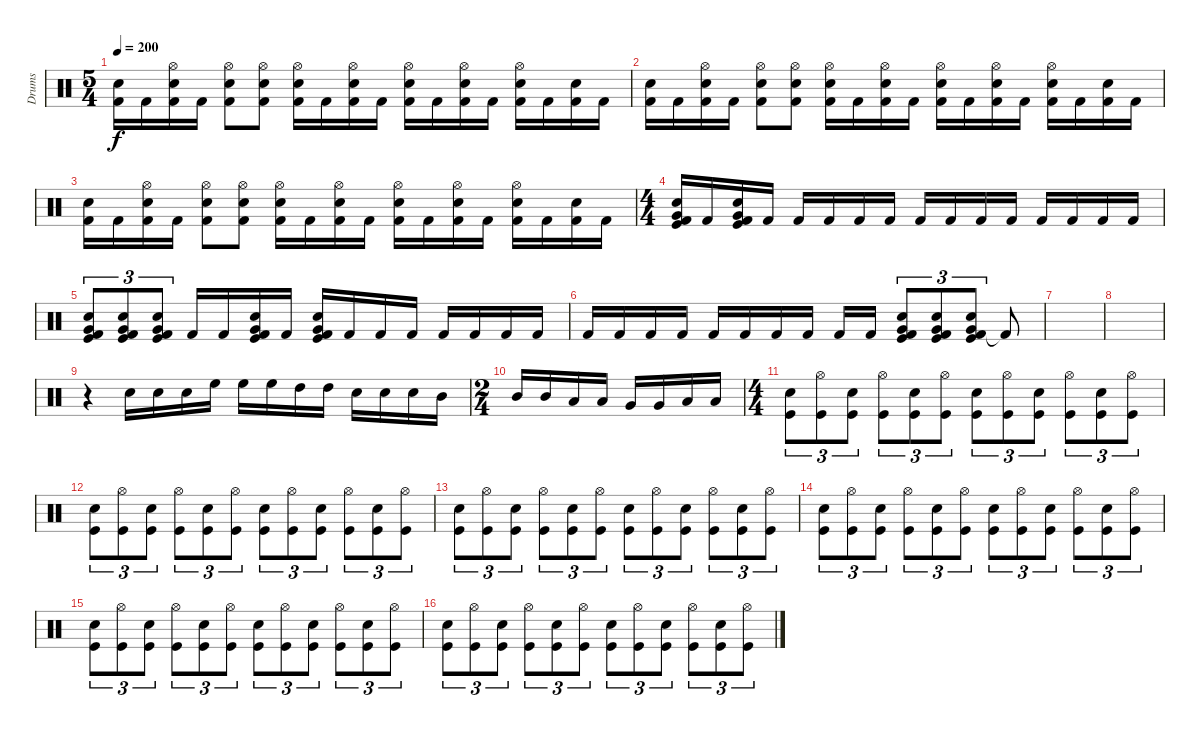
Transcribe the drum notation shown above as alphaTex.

\track ("Drums" "Drums") {instrument percussion}
\staff {score}
\articulation defaults
\ts (5 4)
\tempo 200
\clef neutral
\ks c
("Electric Snare (hit)" "Kick (hit) 2").16{dy f} "Kick (hit) 2".16 ("Hi-Hat (open)" "Electric Snare (hit)" "Kick (hit) 2").16 "Kick (hit) 2".16 ("Hi-Hat (open)" "Electric Snare (hit)" "Kick (hit) 2").8 ("Hi-Hat (open)" "Electric Snare (hit)" "Kick (hit) 2").8 ("Hi-Hat (open)" "Electric Snare (hit)" "Kick (hit) 2").16 "Kick (hit) 2".16 ("Hi-Hat (open)" "Electric Snare (hit)" "Kick (hit) 2").16 "Kick (hit) 2".16 ("Hi-Hat (open)" "Electric Snare (hit)" "Kick (hit) 2").16 "Kick (hit) 2".16 ("Hi-Hat (open)" "Electric Snare (hit)" "Kick (hit) 2").16 "Kick (hit) 2".16 ("Hi-Hat (open)" "Electric Snare (hit)" "Kick (hit) 2").16 "Kick (hit) 2".16 ("Electric Snare (hit)" "Kick (hit) 2").16 "Kick (hit) 2".16 |
("Electric Snare (hit)" "Kick (hit) 2").16 "Kick (hit) 2".16 ("Hi-Hat (open)" "Electric Snare (hit)" "Kick (hit) 2").16 "Kick (hit) 2".16 ("Hi-Hat (open)" "Electric Snare (hit)" "Kick (hit) 2").8 ("Hi-Hat (open)" "Electric Snare (hit)" "Kick (hit) 2").8 ("Hi-Hat (open)" "Electric Snare (hit)" "Kick (hit) 2").16 "Kick (hit) 2".16 ("Hi-Hat (open)" "Electric Snare (hit)" "Kick (hit) 2").16 "Kick (hit) 2".16 ("Hi-Hat (open)" "Electric Snare (hit)" "Kick (hit) 2").16 "Kick (hit) 2".16 ("Hi-Hat (open)" "Electric Snare (hit)" "Kick (hit) 2").16 "Kick (hit) 2".16 ("Hi-Hat (open)" "Electric Snare (hit)" "Kick (hit) 2").16 "Kick (hit) 2".16 ("Electric Snare (hit)" "Kick (hit) 2").16 "Kick (hit) 2".16 |
("Electric Snare (hit)" "Kick (hit) 2").16 "Kick (hit) 2".16 ("Hi-Hat (open)" "Electric Snare (hit)" "Kick (hit) 2").16 "Kick (hit) 2".16 ("Hi-Hat (open)" "Electric Snare (hit)" "Kick (hit) 2").8 ("Hi-Hat (open)" "Electric Snare (hit)" "Kick (hit) 2").8 ("Hi-Hat (open)" "Electric Snare (hit)" "Kick (hit) 2").16 "Kick (hit) 2".16 ("Hi-Hat (open)" "Electric Snare (hit)" "Kick (hit) 2").16 "Kick (hit) 2".16 ("Hi-Hat (open)" "Electric Snare (hit)" "Kick (hit) 2").16 "Kick (hit) 2".16 ("Hi-Hat (open)" "Electric Snare (hit)" "Kick (hit) 2").16 "Kick (hit) 2".16 ("Hi-Hat (open)" "Electric Snare (hit)" "Kick (hit) 2").16 "Kick (hit) 2".16 ("Electric Snare (hit)" "Kick (hit) 2").16 "Kick (hit) 2".16 |
\ts (4 4)
("Electric Snare (hit)" "Very Low Tom (hit)" "Kick (hit)" "Kick (hit) 2").16 "Kick (hit) 2".16 ("Electric Snare (hit)" "Very Low Tom (hit)" "Kick (hit)" "Kick (hit) 2").16 "Kick (hit) 2".16 "Kick (hit) 2".16 "Kick (hit) 2".16 "Kick (hit) 2".16 "Kick (hit) 2".16 "Kick (hit) 2".16 "Kick (hit) 2".16 "Kick (hit) 2".16 "Kick (hit) 2".16 "Kick (hit) 2".16 "Kick (hit) 2".16 "Kick (hit) 2".16 "Kick (hit) 2".16 |
("Electric Snare (hit)" "Very Low Tom (hit)" "Kick (hit)" "Kick (hit) 2").8{tu (3 2)} ("Electric Snare (hit)" "Very Low Tom (hit)" "Kick (hit)" "Kick (hit) 2").8{tu (3 2)} ("Electric Snare (hit)" "Very Low Tom (hit)" "Kick (hit)" "Kick (hit) 2").8{tu (3 2)} "Kick (hit) 2".16 "Kick (hit) 2".16 ("Electric Snare (hit)" "Very Low Tom (hit)" "Kick (hit)" "Kick (hit) 2").16 "Kick (hit) 2".16 ("Electric Snare (hit)" "Very Low Tom (hit)" "Kick (hit)" "Kick (hit) 2").16 "Kick (hit) 2".16 "Kick (hit) 2".16 "Kick (hit) 2".16 "Kick (hit) 2".16 "Kick (hit) 2".16 "Kick (hit) 2".16 "Kick (hit) 2".16 |
"Kick (hit) 2".16 "Kick (hit) 2".16 "Kick (hit) 2".16 "Kick (hit) 2".16 "Kick (hit) 2".16 "Kick (hit) 2".16 "Kick (hit) 2".16 "Kick (hit) 2".16 "Kick (hit) 2".16 "Kick (hit) 2".16 ("Very Low Tom (hit)" "Electric Snare (hit)" "Kick (hit)" "Kick (hit) 2").8{tu (3 2)} ("Very Low Tom (hit)" "Electric Snare (hit)" "Kick (hit)" "Kick (hit) 2").8{tu (3 2)} ("Very Low Tom (hit)" "Electric Snare (hit)" "Kick (hit)" "Kick (hit) 2").8{tu (3 2)} "Kick (hit) 2"{t}.8 |
|
|
r.4 "Electric Snare (hit)".16 "Electric Snare (hit)".16 "Electric Snare (hit)".16 "High Floor Tom (hit)".16 "High Floor Tom (hit)".16 "High Floor Tom (hit)".16 "High Tom (hit)".16 "High Tom (hit)".16 "Electric Snare (hit)".16 "Electric Snare (hit)".16 "Electric Snare (hit)".16 "Mid Tom (hit)".16 |
\ts (2 4)
"Mid Tom (hit)".16 "Mid Tom (hit)".16 "Low Tom (hit)".16 "Low Tom (hit)".16 "Very Low Tom (hit)".16 "Very Low Tom (hit)".16 "Low Floor Tom (hit)".16 "Low Floor Tom (hit)".16 |
\ts (4 4)
("Electric Snare (hit)" "Kick (hit)").8{tu (3 2)} ("Hi-Hat (open)" "Kick (hit)").8{tu (3 2)} ("Electric Snare (hit)" "Kick (hit)").8{tu (3 2)} ("Hi-Hat (open)" "Kick (hit)").8{tu (3 2)} ("Electric Snare (hit)" "Kick (hit)").8{tu (3 2)} ("Hi-Hat (open)" "Kick (hit)").8{tu (3 2)} ("Electric Snare (hit)" "Kick (hit)").8{tu (3 2)} ("Hi-Hat (open)" "Kick (hit)").8{tu (3 2)} ("Electric Snare (hit)" "Kick (hit)").8{tu (3 2)} ("Hi-Hat (open)" "Kick (hit)").8{tu (3 2)} ("Electric Snare (hit)" "Kick (hit)").8{tu (3 2)} ("Hi-Hat (open)" "Kick (hit)").8{tu (3 2)} |
("Electric Snare (hit)" "Kick (hit)").8{tu (3 2)} ("Hi-Hat (open)" "Kick (hit)").8{tu (3 2)} ("Electric Snare (hit)" "Kick (hit)").8{tu (3 2)} ("Hi-Hat (open)" "Kick (hit)").8{tu (3 2)} ("Electric Snare (hit)" "Kick (hit)").8{tu (3 2)} ("Hi-Hat (open)" "Kick (hit)").8{tu (3 2)} ("Electric Snare (hit)" "Kick (hit)").8{tu (3 2)} ("Hi-Hat (open)" "Kick (hit)").8{tu (3 2)} ("Electric Snare (hit)" "Kick (hit)").8{tu (3 2)} ("Hi-Hat (open)" "Kick (hit)").8{tu (3 2)} ("Electric Snare (hit)" "Kick (hit)").8{tu (3 2)} ("Hi-Hat (open)" "Kick (hit)").8{tu (3 2)} |
("Electric Snare (hit)" "Kick (hit)").8{tu (3 2)} ("Hi-Hat (open)" "Kick (hit)").8{tu (3 2)} ("Electric Snare (hit)" "Kick (hit)").8{tu (3 2)} ("Hi-Hat (open)" "Kick (hit)").8{tu (3 2)} ("Electric Snare (hit)" "Kick (hit)").8{tu (3 2)} ("Hi-Hat (open)" "Kick (hit)").8{tu (3 2)} ("Electric Snare (hit)" "Kick (hit)").8{tu (3 2)} ("Hi-Hat (open)" "Kick (hit)").8{tu (3 2)} ("Electric Snare (hit)" "Kick (hit)").8{tu (3 2)} ("Hi-Hat (open)" "Kick (hit)").8{tu (3 2)} ("Electric Snare (hit)" "Kick (hit)").8{tu (3 2)} ("Hi-Hat (open)" "Kick (hit)").8{tu (3 2)} |
("Electric Snare (hit)" "Kick (hit)").8{tu (3 2)} ("Hi-Hat (open)" "Kick (hit)").8{tu (3 2)} ("Electric Snare (hit)" "Kick (hit)").8{tu (3 2)} ("Hi-Hat (open)" "Kick (hit)").8{tu (3 2)} ("Electric Snare (hit)" "Kick (hit)").8{tu (3 2)} ("Hi-Hat (open)" "Kick (hit)").8{tu (3 2)} ("Electric Snare (hit)" "Kick (hit)").8{tu (3 2)} ("Hi-Hat (open)" "Kick (hit)").8{tu (3 2)} ("Electric Snare (hit)" "Kick (hit)").8{tu (3 2)} ("Hi-Hat (open)" "Kick (hit)").8{tu (3 2)} ("Electric Snare (hit)" "Kick (hit)").8{tu (3 2)} ("Hi-Hat (open)" "Kick (hit)").8{tu (3 2)} |
("Electric Snare (hit)" "Kick (hit)").8{tu (3 2)} ("Hi-Hat (open)" "Kick (hit)").8{tu (3 2)} ("Electric Snare (hit)" "Kick (hit)").8{tu (3 2)} ("Hi-Hat (open)" "Kick (hit)").8{tu (3 2)} ("Electric Snare (hit)" "Kick (hit)").8{tu (3 2)} ("Hi-Hat (open)" "Kick (hit)").8{tu (3 2)} ("Electric Snare (hit)" "Kick (hit)").8{tu (3 2)} ("Hi-Hat (open)" "Kick (hit)").8{tu (3 2)} ("Electric Snare (hit)" "Kick (hit)").8{tu (3 2)} ("Hi-Hat (open)" "Kick (hit)").8{tu (3 2)} ("Electric Snare (hit)" "Kick (hit)").8{tu (3 2)} ("Hi-Hat (open)" "Kick (hit)").8{tu (3 2)} |
("Electric Snare (hit)" "Kick (hit)").8{tu (3 2)} ("Hi-Hat (open)" "Kick (hit)").8{tu (3 2)} ("Electric Snare (hit)" "Kick (hit)").8{tu (3 2)} ("Hi-Hat (open)" "Kick (hit)").8{tu (3 2)} ("Electric Snare (hit)" "Kick (hit)").8{tu (3 2)} ("Hi-Hat (open)" "Kick (hit)").8{tu (3 2)} ("Electric Snare (hit)" "Kick (hit)").8{tu (3 2)} ("Hi-Hat (open)" "Kick (hit)").8{tu (3 2)} ("Electric Snare (hit)" "Kick (hit)").8{tu (3 2)} ("Hi-Hat (open)" "Kick (hit)").8{tu (3 2)} ("Electric Snare (hit)" "Kick (hit)").8{tu (3 2)} ("Hi-Hat (open)" "Kick (hit)").8{tu (3 2)}
